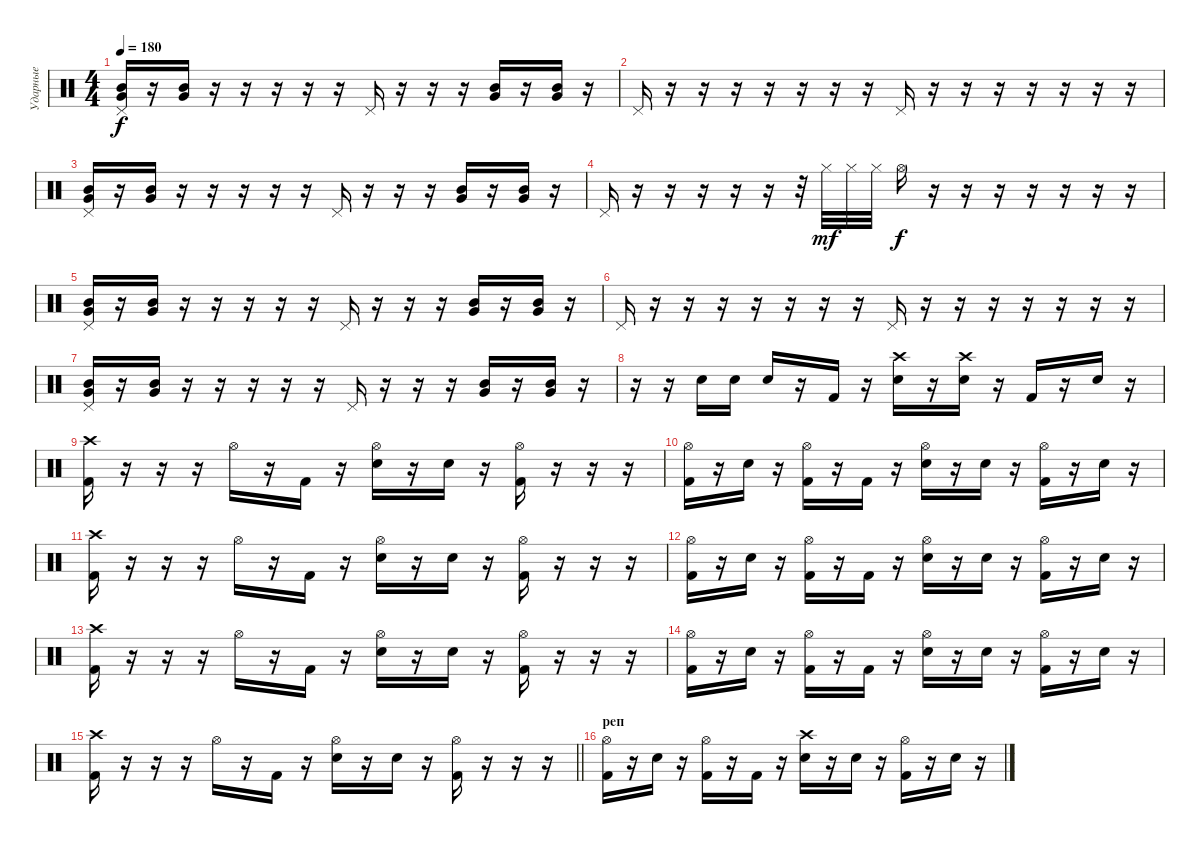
\track ("Ударные" "Ударные") {instrument percussion}
\staff {score}
\articulation defaults
\ts (4 4)
\tempo 180
\clef neutral
\ks c
("Pedal Hi-Hat (hit)" "Mid Tom (hit)" "Very Low Tom (hit)").16{dy f} r.16 ("Mid Tom (hit)" "Very Low Tom (hit)").16 r.16 r.16 r.16 r.16 r.16 "Pedal Hi-Hat (hit)".16 r.16 r.16 r.16 ("Very Low Tom (hit)" "Mid Tom (hit)").16 r.16 ("Mid Tom (hit)" "Very Low Tom (hit)").16 r.16 |
"Pedal Hi-Hat (hit)".16 r.16 r.16 r.16 r.16 r.16 r.16 r.16 "Pedal Hi-Hat (hit)".16 r.16 r.16 r.16 r.16 r.16 r.16 r.16 |
("Pedal Hi-Hat (hit)" "Mid Tom (hit)" "Very Low Tom (hit)").16 r.16 ("Mid Tom (hit)" "Very Low Tom (hit)").16 r.16 r.16 r.16 r.16 r.16 "Pedal Hi-Hat (hit)".16 r.16 r.16 r.16 ("Very Low Tom (hit)" "Mid Tom (hit)").16 r.16 ("Mid Tom (hit)" "Very Low Tom (hit)").16 r.16 |
"Pedal Hi-Hat (hit)".16 r.16 r.16 r.16 r.16 r.16 r.32 "Hi-Hat (closed)".32{dy mf} "Hi-Hat (closed)".32 "Hi-Hat (closed)".32 "Hi-Hat (open)".16{dy f} r.16 r.16 r.16 r.16 r.16 r.16 r.16 |
("Pedal Hi-Hat (hit)" "Mid Tom (hit)" "Very Low Tom (hit)").16 r.16 ("Mid Tom (hit)" "Very Low Tom (hit)").16 r.16 r.16 r.16 r.16 r.16 "Pedal Hi-Hat (hit)".16 r.16 r.16 r.16 ("Very Low Tom (hit)" "Mid Tom (hit)").16 r.16 ("Mid Tom (hit)" "Very Low Tom (hit)").16 r.16 |
"Pedal Hi-Hat (hit)".16 r.16 r.16 r.16 r.16 r.16 r.16 r.16 "Pedal Hi-Hat (hit)".16 r.16 r.16 r.16 r.16 r.16 r.16 r.16 |
("Pedal Hi-Hat (hit)" "Mid Tom (hit)" "Very Low Tom (hit)").16 r.16 ("Mid Tom (hit)" "Very Low Tom (hit)").16 r.16 r.16 r.16 r.16 r.16 "Pedal Hi-Hat (hit)".16 r.16 r.16 r.16 ("Very Low Tom (hit)" "Mid Tom (hit)").16 r.16 ("Mid Tom (hit)" "Very Low Tom (hit)").16 r.16 |
r.16 r.16 "Electric Snare (hit)".16 "Electric Snare (hit)".16 "Electric Snare (hit)".16 r.16 "Kick (hit) 2".16 r.16 ("Crash high (hit)" "Electric Snare (hit)").16 r.16 ("Crash high (hit)" "Electric Snare (hit)").16 r.16 "Kick (hit) 2".16 r.16 "Electric Snare (hit)".16 r.16 |
("Crash high (hit)" "Kick (hit) 2").16 r.16 r.16 r.16 "Hi-Hat (open)".16 r.16 "Kick (hit) 2".16 r.16 ("Hi-Hat (open)" "Electric Snare (hit)").16 r.16 "Electric Snare (hit)".16 r.16 ("Hi-Hat (open)" "Kick (hit) 2").16 r.16 r.16 r.16 |
("Hi-Hat (open)" "Kick (hit) 2").16 r.16 "Electric Snare (hit)".16 r.16 ("Hi-Hat (open)" "Kick (hit) 2").16 r.16 "Kick (hit) 2".16 r.16 ("Hi-Hat (open)" "Electric Snare (hit)").16 r.16 "Electric Snare (hit)".16 r.16 ("Hi-Hat (open)" "Kick (hit) 2").16 r.16 "Electric Snare (hit)".16 r.16 |
("Crash high (hit)" "Kick (hit) 2").16 r.16 r.16 r.16 "Hi-Hat (open)".16 r.16 "Kick (hit) 2".16 r.16 ("Hi-Hat (open)" "Electric Snare (hit)").16 r.16 "Electric Snare (hit)".16 r.16 ("Hi-Hat (open)" "Kick (hit) 2").16 r.16 r.16 r.16 |
("Hi-Hat (open)" "Kick (hit) 2").16 r.16 "Electric Snare (hit)".16 r.16 ("Hi-Hat (open)" "Kick (hit) 2").16 r.16 "Kick (hit) 2".16 r.16 ("Hi-Hat (open)" "Electric Snare (hit)").16 r.16 "Electric Snare (hit)".16 r.16 ("Hi-Hat (open)" "Kick (hit) 2").16 r.16 "Electric Snare (hit)".16 r.16 |
("Crash high (hit)" "Kick (hit) 2").16 r.16 r.16 r.16 "Hi-Hat (open)".16 r.16 "Kick (hit) 2".16 r.16 ("Hi-Hat (open)" "Electric Snare (hit)").16 r.16 "Electric Snare (hit)".16 r.16 ("Hi-Hat (open)" "Kick (hit) 2").16 r.16 r.16 r.16 |
("Hi-Hat (open)" "Kick (hit) 2").16 r.16 "Electric Snare (hit)".16 r.16 ("Hi-Hat (open)" "Kick (hit) 2").16 r.16 "Kick (hit) 2".16 r.16 ("Hi-Hat (open)" "Electric Snare (hit)").16 r.16 "Electric Snare (hit)".16 r.16 ("Hi-Hat (open)" "Kick (hit) 2").16 r.16 "Electric Snare (hit)".16 r.16 |
\barLineRight lightlight
("Crash high (hit)" "Kick (hit) 2").16 r.16 r.16 r.16 "Hi-Hat (open)".16 r.16 "Kick (hit) 2".16 r.16 ("Hi-Hat (open)" "Electric Snare (hit)").16 r.16 "Electric Snare (hit)".16 r.16 ("Hi-Hat (open)" "Kick (hit) 2").16 r.16 r.16 r.16 |
\section ("" "реп")
("Hi-Hat (open)" "Kick (hit) 2").16 r.16 "Electric Snare (hit)".16 r.16 ("Hi-Hat (open)" "Kick (hit) 2").16 r.16 "Kick (hit) 2".16 r.16 ("Crash high (hit)" "Electric Snare (hit)").16 r.16 "Electric Snare (hit)".16 r.16 ("Hi-Hat (open)" "Kick (hit) 2").16 r.16 "Electric Snare (hit)".16 r.16
